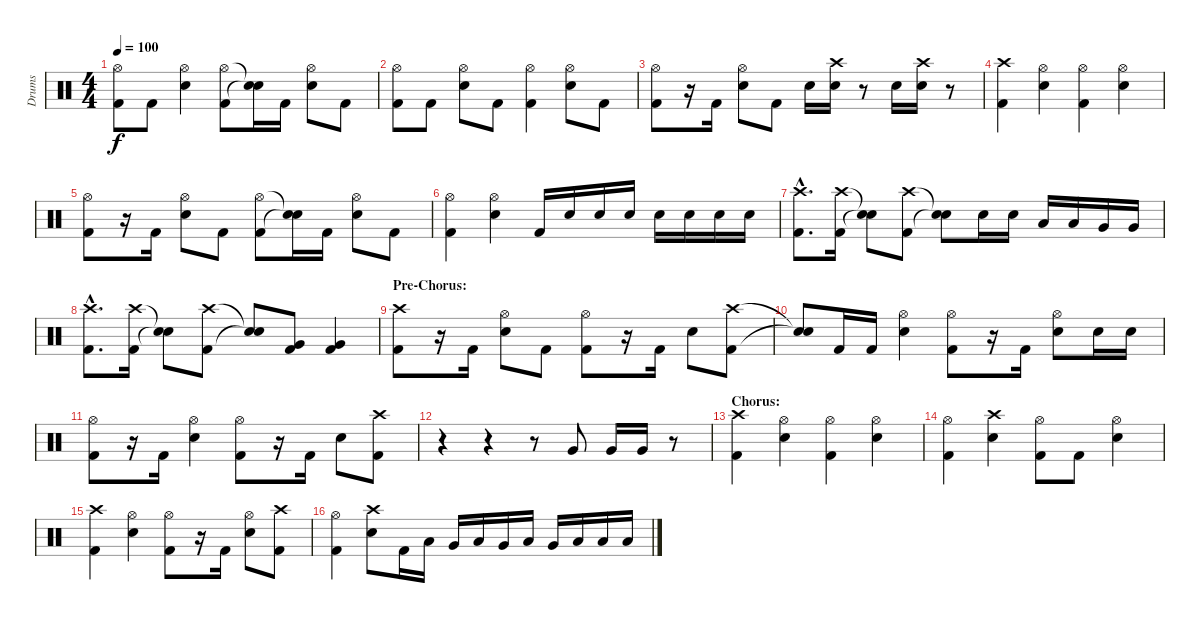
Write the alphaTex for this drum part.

\track ("Drums" "Drums") {instrument percussion}
\staff {score}
\articulation defaults
\ts (4 4)
\tempo 100
\clef neutral
\ks c
("Hi-Hat (open)" "Kick (hit) 2").8{dy f} "Kick (hit) 2".8 ("Hi-Hat (open)" "Electric Snare (hit)").4 ("Hi-Hat (open)" "Kick (hit) 2").8 ("Snare (hit)"{t} "Snare (hit)"{t}).16 "Kick (hit) 2".16 ("Hi-Hat (open)" "Electric Snare (hit)").8 "Kick (hit) 2".8 |
("Hi-Hat (open)" "Kick (hit) 2").8 "Kick (hit) 2".8 ("Hi-Hat (open)" "Electric Snare (hit)").8 "Kick (hit) 2".8 ("Hi-Hat (open)" "Kick (hit) 2").4 ("Hi-Hat (open)" "Electric Snare (hit)").8 "Kick (hit) 2".8 |
("Hi-Hat (open)" "Kick (hit) 2").8 r.16 "Kick (hit) 2".16 ("Hi-Hat (open)" "Electric Snare (hit)").8 "Kick (hit) 2".8 "Electric Snare (hit)".16 ("Crash high (hit)" "Electric Snare (hit)").16 r.8 "Electric Snare (hit)".16 ("Crash high (hit)" "Electric Snare (hit)").16 r.8 |
("Crash high (hit)" "Kick (hit) 2").4 ("Hi-Hat (open)" "Electric Snare (hit)").4 ("Hi-Hat (open)" "Kick (hit) 2").4 ("Hi-Hat (open)" "Electric Snare (hit)").4 |
("Hi-Hat (open)" "Kick (hit) 2").8 r.16 "Kick (hit) 2".16 ("Hi-Hat (open)" "Electric Snare (hit)").8 "Kick (hit) 2".8 ("Hi-Hat (open)" "Kick (hit) 2").8 ("Snare (hit)"{t} "Snare (hit)"{t}).16 "Kick (hit) 2".16 ("Hi-Hat (open)" "Electric Snare (hit)").8 "Kick (hit) 2".8 |
("Hi-Hat (open)" "Kick (hit) 2").4 ("Hi-Hat (open)" "Electric Snare (hit)").4 "Kick (hit) 2".16 "Electric Snare (hit)".16 "Electric Snare (hit)".16 "Electric Snare (hit)".16 "Electric Snare (hit)".16 "Electric Snare (hit)".16 "Electric Snare (hit)".16 "Electric Snare (hit)".16 |
("Crash high (hit)"{hac} "Kick (hit) 2"{hac}).8{d} ("Crash high (hit)" "Kick (hit) 2").16 ("Snare (hit)"{t} "Snare (hit)"{t}).8 ("Crash high (hit)" "Kick (hit) 2").8 ("Snare (hit)"{t} "Snare (hit)"{t}).8 "Electric Snare (hit)".16 "Electric Snare (hit)".16 "Low Tom (hit)".16 "Low Tom (hit)".16 "Very Low Tom (hit)".16 "Very Low Tom (hit)".16 |
("Crash high (hit)"{hac} "Kick (hit) 2"{hac}).8{d} ("Crash high (hit)" "Kick (hit) 2").16 ("Snare (hit)"{t} "Snare (hit)"{t}).8 ("Crash high (hit)" "Kick (hit) 2").8 ("Snare (hit)"{t} "Snare (hit)"{t}).8 ("Very Low Tom (hit)" "Kick (hit) 2").8 ("Very Low Tom (hit)" "Kick (hit) 2").4 |
\section ("" "Pre-Chorus:")
("Crash high (hit)" "Kick (hit) 2").8 r.16 "Kick (hit) 2".16 ("Hi-Hat (open)" "Electric Snare (hit)").8 "Kick (hit) 2".8 ("Hi-Hat (open)" "Kick (hit) 2").8 r.16 "Kick (hit) 2".16 "Electric Snare (hit)".8 ("Crash high (hit)" "Kick (hit) 2").8 |
("Snare (hit)"{t} "Snare (hit)"{t}).8 "Kick (hit) 2".16 "Kick (hit) 2".16 ("Hi-Hat (open)" "Electric Snare (hit)").4 ("Hi-Hat (open)" "Kick (hit) 2").8 r.16 "Kick (hit) 2".16 ("Hi-Hat (open)" "Electric Snare (hit)").8 "Electric Snare (hit)".16 "Electric Snare (hit)".16 |
("Hi-Hat (open)" "Kick (hit) 2").8 r.16 "Kick (hit) 2".16 ("Hi-Hat (open)" "Electric Snare (hit)").4 ("Hi-Hat (open)" "Kick (hit) 2").8 r.16 "Kick (hit) 2".16 "Electric Snare (hit)".8 ("Crash high (hit)" "Kick (hit) 2").8 |
r.4 r.4 r.8 "Very Low Tom (hit)".8 "Very Low Tom (hit)".16 "Very Low Tom (hit)".16 r.8 |
\section ("" "Chorus:")
("Crash high (hit)" "Kick (hit) 2").4 ("Hi-Hat (open)" "Electric Snare (hit)").4 ("Hi-Hat (open)" "Kick (hit) 2").4 ("Hi-Hat (open)" "Electric Snare (hit)").4 |
("Hi-Hat (open)" "Kick (hit) 2").4 ("Crash high (hit)" "Electric Snare (hit)").4 ("Hi-Hat (open)" "Kick (hit) 2").8 "Kick (hit) 2".8 ("Hi-Hat (open)" "Electric Snare (hit)").4 |
("Crash high (hit)" "Kick (hit) 2").4 ("Hi-Hat (open)" "Electric Snare (hit)").4 ("Hi-Hat (open)" "Kick (hit) 2").8 r.16 "Kick (hit) 2".16 ("Hi-Hat (open)" "Electric Snare (hit)").8 ("Crash high (hit)" "Kick (hit) 2").8 |
("Hi-Hat (open)" "Kick (hit) 2").4 ("Crash high (hit)" "Electric Snare (hit)").8 "Kick (hit) 2".16 "Low Tom (hit)".16 "Very Low Tom (hit)".16 "Low Tom (hit)".16 "Very Low Tom (hit)".16 "Low Tom (hit)".16 "Very Low Tom (hit)".16 "Low Tom (hit)".16 "Low Tom (hit)".16 "Low Tom (hit)".16
